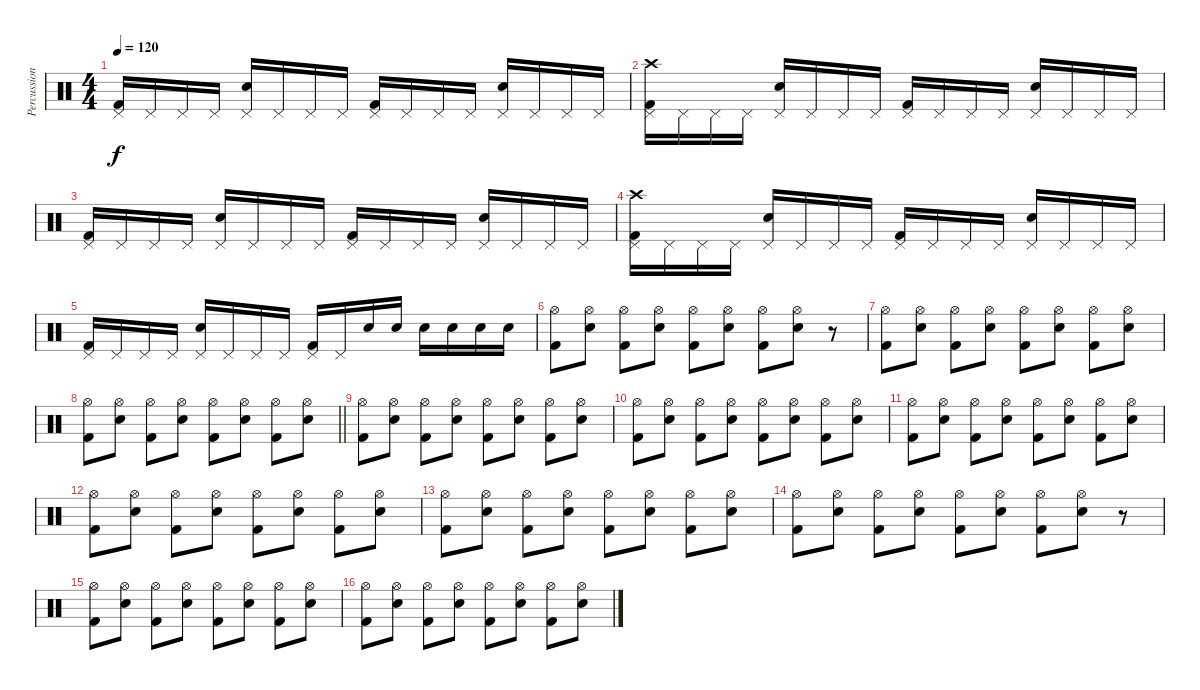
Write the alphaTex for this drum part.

\track ("Percussion" "Percussion") {instrument percussion}
\staff {score}
\articulation defaults
\ts (4 4)
\tempo 120
\clef neutral
\ks c
("Pedal Hi-Hat (hit)" "Kick (hit) 2").16{dy f} "Pedal Hi-Hat (hit)".16 "Pedal Hi-Hat (hit)".16 "Pedal Hi-Hat (hit)".16 ("Pedal Hi-Hat (hit)" "Electric Snare (hit)").16 "Pedal Hi-Hat (hit)".16 "Pedal Hi-Hat (hit)".16 "Pedal Hi-Hat (hit)".16 ("Pedal Hi-Hat (hit)" "Kick (hit) 2").16 "Pedal Hi-Hat (hit)".16 "Pedal Hi-Hat (hit)".16 "Pedal Hi-Hat (hit)".16 ("Pedal Hi-Hat (hit)" "Electric Snare (hit)").16 "Pedal Hi-Hat (hit)".16 "Pedal Hi-Hat (hit)".16 "Pedal Hi-Hat (hit)".16 |
("Crash high (hit)" "Pedal Hi-Hat (hit)" "Kick (hit) 2").16 "Pedal Hi-Hat (hit)".16 "Pedal Hi-Hat (hit)".16 "Pedal Hi-Hat (hit)".16 ("Pedal Hi-Hat (hit)" "Electric Snare (hit)").16 "Pedal Hi-Hat (hit)".16 "Pedal Hi-Hat (hit)".16 "Pedal Hi-Hat (hit)".16 ("Pedal Hi-Hat (hit)" "Kick (hit) 2").16 "Pedal Hi-Hat (hit)".16 "Pedal Hi-Hat (hit)".16 "Pedal Hi-Hat (hit)".16 ("Pedal Hi-Hat (hit)" "Electric Snare (hit)").16 "Pedal Hi-Hat (hit)".16 "Pedal Hi-Hat (hit)".16 "Pedal Hi-Hat (hit)".16 |
("Pedal Hi-Hat (hit)" "Kick (hit) 2").16 "Pedal Hi-Hat (hit)".16 "Pedal Hi-Hat (hit)".16 "Pedal Hi-Hat (hit)".16 ("Pedal Hi-Hat (hit)" "Electric Snare (hit)").16 "Pedal Hi-Hat (hit)".16 "Pedal Hi-Hat (hit)".16 "Pedal Hi-Hat (hit)".16 ("Pedal Hi-Hat (hit)" "Kick (hit) 2").16 "Pedal Hi-Hat (hit)".16 "Pedal Hi-Hat (hit)".16 "Pedal Hi-Hat (hit)".16 ("Pedal Hi-Hat (hit)" "Electric Snare (hit)").16 "Pedal Hi-Hat (hit)".16 "Pedal Hi-Hat (hit)".16 "Pedal Hi-Hat (hit)".16 |
("Crash high (hit)" "Pedal Hi-Hat (hit)" "Kick (hit) 2").16 "Pedal Hi-Hat (hit)".16 "Pedal Hi-Hat (hit)".16 "Pedal Hi-Hat (hit)".16 ("Pedal Hi-Hat (hit)" "Electric Snare (hit)").16 "Pedal Hi-Hat (hit)".16 "Pedal Hi-Hat (hit)".16 "Pedal Hi-Hat (hit)".16 ("Pedal Hi-Hat (hit)" "Kick (hit) 2").16 "Pedal Hi-Hat (hit)".16 "Pedal Hi-Hat (hit)".16 "Pedal Hi-Hat (hit)".16 ("Pedal Hi-Hat (hit)" "Electric Snare (hit)").16 "Pedal Hi-Hat (hit)".16 "Pedal Hi-Hat (hit)".16 "Pedal Hi-Hat (hit)".16 |
("Pedal Hi-Hat (hit)" "Kick (hit) 2").16 "Pedal Hi-Hat (hit)".16 "Pedal Hi-Hat (hit)".16 "Pedal Hi-Hat (hit)".16 ("Pedal Hi-Hat (hit)" "Electric Snare (hit)").16 "Pedal Hi-Hat (hit)".16 "Pedal Hi-Hat (hit)".16 "Pedal Hi-Hat (hit)".16 ("Pedal Hi-Hat (hit)" "Kick (hit) 2").16 "Pedal Hi-Hat (hit)".16 "Electric Snare (hit)".16 "Electric Snare (hit)".16 "Electric Snare (hit)".16 "Electric Snare (hit)".16 "Electric Snare (hit)".16 "Electric Snare (hit)".16 |
("Hi-Hat (open)" "Kick (hit) 2").8 ("Electric Snare (hit)" "Hi-Hat (open)").8 ("Hi-Hat (open)" "Kick (hit) 2").8 ("Electric Snare (hit)" "Hi-Hat (open)").8 ("Hi-Hat (open)" "Kick (hit) 2").8 ("Electric Snare (hit)" "Hi-Hat (open)").8 ("Hi-Hat (open)" "Kick (hit) 2").8 ("Electric Snare (hit)" "Hi-Hat (open)").8 r.8 |
("Hi-Hat (open)" "Kick (hit) 2").8 ("Electric Snare (hit)" "Hi-Hat (open)").8 ("Hi-Hat (open)" "Kick (hit) 2").8 ("Electric Snare (hit)" "Hi-Hat (open)").8 ("Hi-Hat (open)" "Kick (hit) 2").8 ("Electric Snare (hit)" "Hi-Hat (open)").8 ("Hi-Hat (open)" "Kick (hit) 2").8 ("Electric Snare (hit)" "Hi-Hat (open)").8 |
\barLineRight lightlight
("Hi-Hat (open)" "Kick (hit) 2").8 ("Electric Snare (hit)" "Hi-Hat (open)").8 ("Hi-Hat (open)" "Kick (hit) 2").8 ("Electric Snare (hit)" "Hi-Hat (open)").8 ("Hi-Hat (open)" "Kick (hit) 2").8 ("Electric Snare (hit)" "Hi-Hat (open)").8 ("Hi-Hat (open)" "Kick (hit) 2").8 ("Electric Snare (hit)" "Hi-Hat (open)").8 |
("Hi-Hat (open)" "Kick (hit) 2").8 ("Electric Snare (hit)" "Hi-Hat (open)").8 ("Hi-Hat (open)" "Kick (hit) 2").8 ("Electric Snare (hit)" "Hi-Hat (open)").8 ("Hi-Hat (open)" "Kick (hit) 2").8 ("Electric Snare (hit)" "Hi-Hat (open)").8 ("Hi-Hat (open)" "Kick (hit) 2").8 ("Electric Snare (hit)" "Hi-Hat (open)").8 |
("Hi-Hat (open)" "Kick (hit) 2").8 ("Electric Snare (hit)" "Hi-Hat (open)").8 ("Hi-Hat (open)" "Kick (hit) 2").8 ("Electric Snare (hit)" "Hi-Hat (open)").8 ("Hi-Hat (open)" "Kick (hit) 2").8 ("Electric Snare (hit)" "Hi-Hat (open)").8 ("Hi-Hat (open)" "Kick (hit) 2").8 ("Electric Snare (hit)" "Hi-Hat (open)").8 |
("Hi-Hat (open)" "Kick (hit) 2").8 ("Electric Snare (hit)" "Hi-Hat (open)").8 ("Hi-Hat (open)" "Kick (hit) 2").8 ("Electric Snare (hit)" "Hi-Hat (open)").8 ("Hi-Hat (open)" "Kick (hit) 2").8 ("Electric Snare (hit)" "Hi-Hat (open)").8 ("Hi-Hat (open)" "Kick (hit) 2").8 ("Electric Snare (hit)" "Hi-Hat (open)").8 |
("Hi-Hat (open)" "Kick (hit) 2").8 ("Electric Snare (hit)" "Hi-Hat (open)").8 ("Hi-Hat (open)" "Kick (hit) 2").8 ("Electric Snare (hit)" "Hi-Hat (open)").8 ("Hi-Hat (open)" "Kick (hit) 2").8 ("Electric Snare (hit)" "Hi-Hat (open)").8 ("Hi-Hat (open)" "Kick (hit) 2").8 ("Electric Snare (hit)" "Hi-Hat (open)").8 |
("Hi-Hat (open)" "Kick (hit) 2").8 ("Electric Snare (hit)" "Hi-Hat (open)").8 ("Hi-Hat (open)" "Kick (hit) 2").8 ("Electric Snare (hit)" "Hi-Hat (open)").8 ("Hi-Hat (open)" "Kick (hit) 2").8 ("Electric Snare (hit)" "Hi-Hat (open)").8 ("Hi-Hat (open)" "Kick (hit) 2").8 ("Electric Snare (hit)" "Hi-Hat (open)").8 |
("Hi-Hat (open)" "Kick (hit) 2").8 ("Electric Snare (hit)" "Hi-Hat (open)").8 ("Hi-Hat (open)" "Kick (hit) 2").8 ("Electric Snare (hit)" "Hi-Hat (open)").8 ("Hi-Hat (open)" "Kick (hit) 2").8 ("Electric Snare (hit)" "Hi-Hat (open)").8 ("Hi-Hat (open)" "Kick (hit) 2").8 ("Electric Snare (hit)" "Hi-Hat (open)").8 r.8 |
("Hi-Hat (open)" "Kick (hit) 2").8 ("Electric Snare (hit)" "Hi-Hat (open)").8 ("Hi-Hat (open)" "Kick (hit) 2").8 ("Electric Snare (hit)" "Hi-Hat (open)").8 ("Hi-Hat (open)" "Kick (hit) 2").8 ("Electric Snare (hit)" "Hi-Hat (open)").8 ("Hi-Hat (open)" "Kick (hit) 2").8 ("Electric Snare (hit)" "Hi-Hat (open)").8 |
("Hi-Hat (open)" "Kick (hit) 2").8 ("Electric Snare (hit)" "Hi-Hat (open)").8 ("Hi-Hat (open)" "Kick (hit) 2").8 ("Electric Snare (hit)" "Hi-Hat (open)").8 ("Hi-Hat (open)" "Kick (hit) 2").8 ("Electric Snare (hit)" "Hi-Hat (open)").8 ("Hi-Hat (open)" "Kick (hit) 2").8 ("Electric Snare (hit)" "Hi-Hat (open)").8
